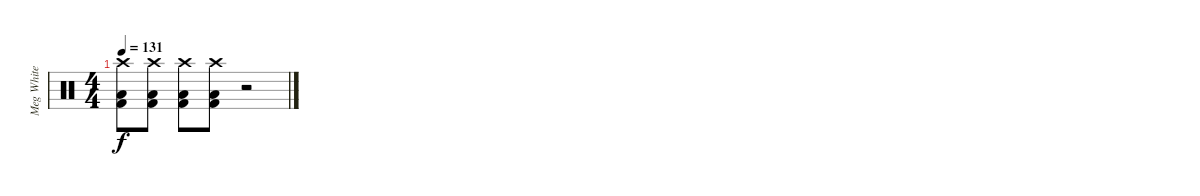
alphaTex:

\track ("Meg White - Drums" "Meg White ") {instrument percussion}
\staff {score}
\articulation defaults
\ts (4 4)
\tempo 131
\clef neutral
\ks c
("Crash high (hit)" "Low Floor Tom (hit)" "Kick (hit) 2").8{dy f} ("Crash high (hit)" "Low Floor Tom (hit)" "Kick (hit) 2").8 ("Crash high (hit)" "Low Floor Tom (hit)" "Kick (hit) 2").8 ("Crash high (hit)" "Low Floor Tom (hit)" "Kick (hit) 2").8 r.2
